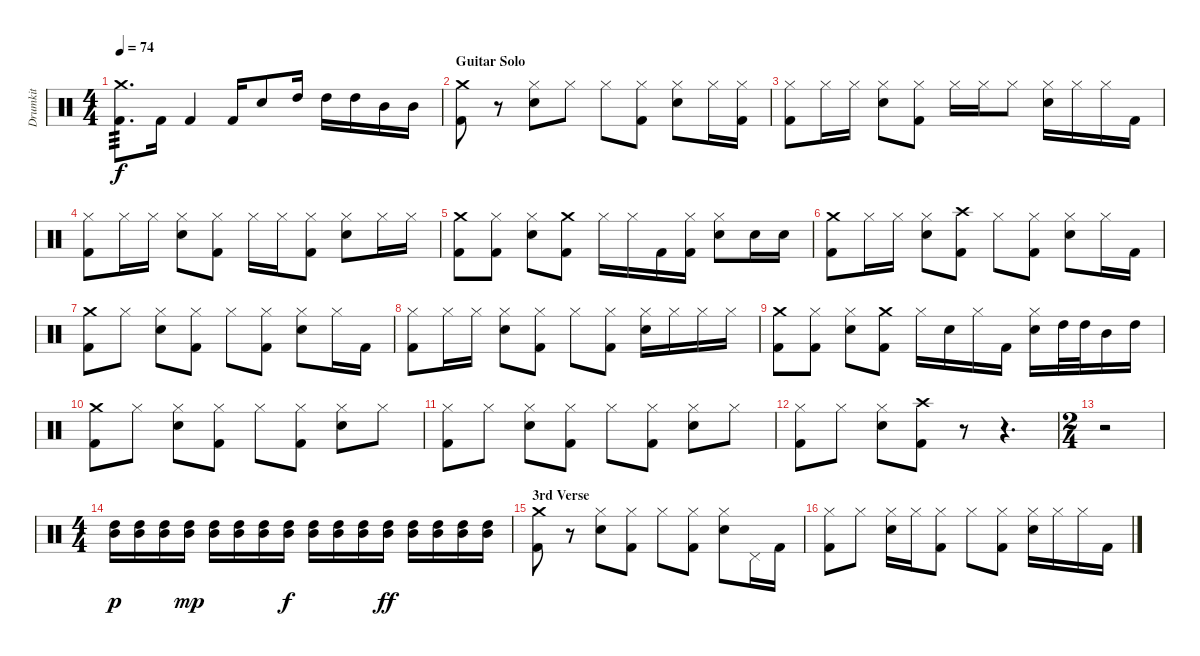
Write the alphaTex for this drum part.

\track ("Drumkit" "Drumkit") {instrument percussion}
\staff {score}
\articulation defaults
\ts (4 4)
\tempo 74
\clef neutral
\ks c
("Crash medium (hit)" "Kick (hit) 2").8{d tp 3 dy f} "Kick (hit) 2".16 "Kick (hit) 2".4 "Kick (hit) 2".16 "Snare (hit) 2".8 "High Tom (hit)".16 "High Tom (hit)".16 "High Tom (hit)".16 "Mid Tom (hit)".16 "Mid Tom (hit)".16 |
\section ("" "Guitar Solo")
("Crash medium (hit)" "Kick (hit) 2").8 r.8 ("Hi-Hat (closed)" "Snare (hit) 2").8 "Hi-Hat (closed)".8 "Hi-Hat (closed)".8 ("Hi-Hat (closed)" "Kick (hit) 2").8 ("Hi-Hat (closed)" "Snare (hit) 2").8 "Hi-Hat (closed)".16 ("Hi-Hat (closed)" "Kick (hit) 2").16 |
("Hi-Hat (closed)" "Kick (hit) 2").8 "Hi-Hat (closed)".16 "Hi-Hat (closed)".16 ("Hi-Hat (closed)" "Snare (hit) 2").8 ("Hi-Hat (closed)" "Kick (hit) 2").8 "Hi-Hat (closed)".16 "Hi-Hat (closed)".16 "Hi-Hat (closed)".8 ("Hi-Hat (closed)" "Snare (hit) 2").16 "Hi-Hat (closed)".16 "Hi-Hat (closed)".16 "Kick (hit) 2".16 |
("Hi-Hat (closed)" "Kick (hit) 2").8 "Hi-Hat (closed)".16 "Hi-Hat (closed)".16 ("Hi-Hat (closed)" "Snare (hit) 2").8 ("Hi-Hat (closed)" "Kick (hit) 2").8 "Hi-Hat (closed)".16 "Hi-Hat (closed)".16 ("Hi-Hat (closed)" "Kick (hit) 2").8 ("Hi-Hat (closed)" "Snare (hit) 2").8 "Hi-Hat (closed)".16 "Hi-Hat (closed)".16 |
("Crash medium (hit)" "Kick (hit) 2").8 ("Hi-Hat (closed)" "Kick (hit) 2").8 ("Hi-Hat (closed)" "Snare (hit) 2").8 ("Crash medium (hit)" "Kick (hit) 2").8 "Hi-Hat (closed)".16 "Hi-Hat (closed)".16 "Kick (hit) 2".16 ("Hi-Hat (closed)" "Kick (hit) 2").16 ("Hi-Hat (closed)" "Snare (hit) 2").8 "Snare (hit) 2".16 "Snare (hit) 2".16 |
("Crash medium (hit)" "Kick (hit) 2").8 "Hi-Hat (closed)".16 "Hi-Hat (closed)".16 ("Hi-Hat (closed)" "Snare (hit) 2").8 ("Crash high (hit)" "Kick (hit) 2").8 "Hi-Hat (closed)".8 ("Hi-Hat (closed)" "Kick (hit) 2").8 ("Hi-Hat (closed)" "Snare (hit) 2").8 "Hi-Hat (closed)".16 "Kick (hit) 2".16 |
("Crash medium (hit)" "Kick (hit) 2").8 "Hi-Hat (closed)".8 ("Hi-Hat (closed)" "Snare (hit) 2").8 ("Hi-Hat (closed)" "Kick (hit) 2").8 "Hi-Hat (closed)".8 ("Hi-Hat (closed)" "Kick (hit) 2").8 ("Hi-Hat (closed)" "Snare (hit) 2").8 "Hi-Hat (closed)".16 "Kick (hit) 2".16 |
("Hi-Hat (closed)" "Kick (hit) 2").8 "Hi-Hat (closed)".16 "Hi-Hat (closed)".16 ("Hi-Hat (closed)" "Snare (hit) 2").8 ("Hi-Hat (closed)" "Kick (hit) 2").8 "Hi-Hat (closed)".8 ("Hi-Hat (closed)" "Kick (hit) 2").8 ("Hi-Hat (closed)" "Snare (hit) 2").16 "Hi-Hat (closed)".16 "Hi-Hat (closed)".16 "Hi-Hat (closed)".16 |
("Crash medium (hit)" "Kick (hit) 2").8 ("Hi-Hat (closed)" "Kick (hit) 2").8 ("Hi-Hat (closed)" "Snare (hit) 2").8 ("Crash medium (hit)" "Kick (hit) 2").8 "Hi-Hat (closed)".16 "Snare (hit) 2".16 "Hi-Hat (closed)".16 "Kick (hit) 2".16 ("Hi-Hat (closed)" "Snare (hit) 2").16 "High Tom (hit)".32 "High Tom (hit)".32 "Mid Tom (hit)".16 "High Tom (hit)".16 |
("Crash medium (hit)" "Kick (hit) 2").8 "Hi-Hat (closed)".8 ("Hi-Hat (closed)" "Snare (hit) 2").8 ("Hi-Hat (closed)" "Kick (hit) 2").8 "Hi-Hat (closed)".8 ("Hi-Hat (closed)" "Kick (hit) 2").8 ("Hi-Hat (closed)" "Snare (hit) 2").8 "Hi-Hat (closed)".8 |
("Hi-Hat (closed)" "Kick (hit) 2").8 "Hi-Hat (closed)".8 ("Hi-Hat (closed)" "Snare (hit) 2").8 ("Hi-Hat (closed)" "Kick (hit) 2").8 "Hi-Hat (closed)".8 ("Hi-Hat (closed)" "Kick (hit) 2").8 ("Hi-Hat (closed)" "Snare (hit) 2").8 "Hi-Hat (closed)".8 |
("Hi-Hat (closed)" "Kick (hit) 2").8 "Hi-Hat (closed)".8 ("Hi-Hat (closed)" "Snare (hit) 2").8 ("Crash high (hit)" "Kick (hit) 2").8 r.8 r.4{d} |
\ts (2 4)
r.2 |
\ts (4 4)
("High Tom (hit)" "Mid Tom (hit)").16{dy p} ("High Tom (hit)" "Mid Tom (hit)").16 ("High Tom (hit)" "Mid Tom (hit)").16 ("High Tom (hit)" "Mid Tom (hit)").16{dy mp} ("High Tom (hit)" "Mid Tom (hit)").16 ("High Tom (hit)" "Mid Tom (hit)").16 ("High Tom (hit)" "Mid Tom (hit)").16 ("High Tom (hit)" "Mid Tom (hit)").16{dy f} ("High Tom (hit)" "Mid Tom (hit)").16 ("High Tom (hit)" "Mid Tom (hit)").16 ("High Tom (hit)" "Mid Tom (hit)").16 ("High Tom (hit)" "Mid Tom (hit)").16{dy ff} ("High Tom (hit)" "Mid Tom (hit)").16 ("High Tom (hit)" "Mid Tom (hit)").16 ("High Tom (hit)" "Mid Tom (hit)").16 ("High Tom (hit)" "Mid Tom (hit)").16 |
\section ("" "3rd Verse")
("Crash medium (hit)" "Kick (hit) 2").8 r.8 ("Hi-Hat (closed)" "Snare (hit) 2").8 ("Hi-Hat (closed)" "Kick (hit) 2").8 "Hi-Hat (closed)".8 ("Hi-Hat (closed)" "Kick (hit) 2").8 ("Hi-Hat (closed)" "Snare (hit) 2").8 "Pedal Hi-Hat (hit)".16 "Kick (hit) 2".16 |
("Hi-Hat (closed)" "Kick (hit) 2").8 "Hi-Hat (closed)".8 ("Hi-Hat (closed)" "Snare (hit) 2").16 "Hi-Hat (closed)".16 ("Hi-Hat (closed)" "Kick (hit) 2").8 "Hi-Hat (closed)".8 ("Hi-Hat (closed)" "Kick (hit) 2").8 ("Hi-Hat (closed)" "Snare (hit) 2").16 "Hi-Hat (closed)".16 "Hi-Hat (closed)".16 "Kick (hit) 2".16
